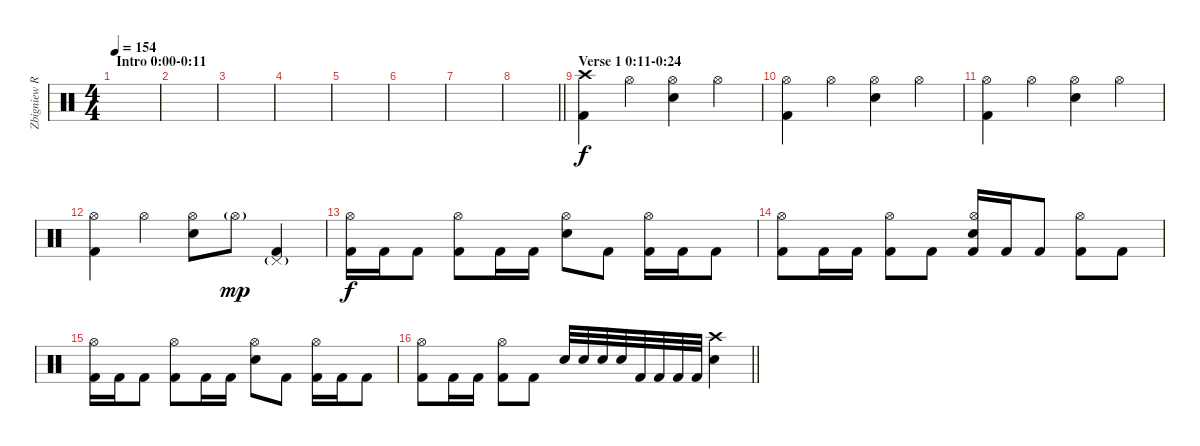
\track ("Zbigniew Robert \"Inferno\" Prominski" "Zbigniew R") {instrument percussion}
\staff {score}
\articulation defaults
\ts (4 4)
\section ("" "Intro 0:00-0:11")
\tempo 154
\clef neutral
\ks c
|
|
|
|
|
|
|
\barLineRight lightlight
|
\section ("" "Verse 1 0:11-0:24")
("Crash high (hit)" "Kick (hit) 2").4 "Hi-Hat (open)".4 ("Hi-Hat (open)" "Snare (hit) 2").4 "Hi-Hat (open)".4 |
("Hi-Hat (open)" "Kick (hit) 2").4 "Hi-Hat (open)".4 ("Hi-Hat (open)" "Snare (hit) 2").4 "Hi-Hat (open)".4 |
("Hi-Hat (open)" "Kick (hit) 2").4 "Hi-Hat (open)".4 ("Hi-Hat (open)" "Snare (hit) 2").4 "Hi-Hat (open)".4 |
("Hi-Hat (open)" "Kick (hit) 2").4 "Hi-Hat (open)".4 ("Hi-Hat (open)" "Snare (hit) 2").8 "Hi-Hat (open)"{g}.8{dy mp} ("Pedal Hi-Hat (hit)"{g} "Kick (hit) 2").4 |
("Hi-Hat (open)" "Kick (hit) 2").16{dy f} "Kick (hit) 2".16 "Kick (hit) 2".8 ("Hi-Hat (open)" "Kick (hit) 2").8 "Kick (hit) 2".16 "Kick (hit) 2".16 ("Hi-Hat (open)" "Snare (hit) 2").8 "Kick (hit) 2".8 ("Hi-Hat (open)" "Kick (hit) 2").16 "Kick (hit) 2".16 "Kick (hit) 2".8 |
("Hi-Hat (open)" "Kick (hit) 2").8 "Kick (hit) 2".16 "Kick (hit) 2".16 ("Hi-Hat (open)" "Kick (hit) 2").8 "Kick (hit) 2".8 ("Hi-Hat (open)" "Snare (hit) 2" "Kick (hit) 2").16 "Kick (hit) 2".16 "Kick (hit) 2".8 ("Hi-Hat (open)" "Kick (hit) 2").8 "Kick (hit) 2".8 |
("Hi-Hat (open)" "Kick (hit) 2").16 "Kick (hit) 2".16 "Kick (hit) 2".8 ("Hi-Hat (open)" "Kick (hit) 2").8 "Kick (hit) 2".16 "Kick (hit) 2".16 ("Hi-Hat (open)" "Snare (hit) 2").8 "Kick (hit) 2".8 ("Hi-Hat (open)" "Kick (hit) 2").16 "Kick (hit) 2".16 "Kick (hit) 2".8 |
\barLineRight lightlight
("Hi-Hat (open)" "Kick (hit) 2").8 "Kick (hit) 2".16 "Kick (hit) 2".16 ("Hi-Hat (open)" "Kick (hit) 2").8 "Kick (hit) 2".8 "Snare (hit) 2".32 "Snare (hit) 2".32 "Snare (hit) 2".32 "Snare (hit) 2".32 "Kick (hit) 2".32 "Kick (hit) 2".32 "Kick (hit) 2".32 "Kick (hit) 2".32 ("Crash high (hit)" "Snare (hit) 2").4
